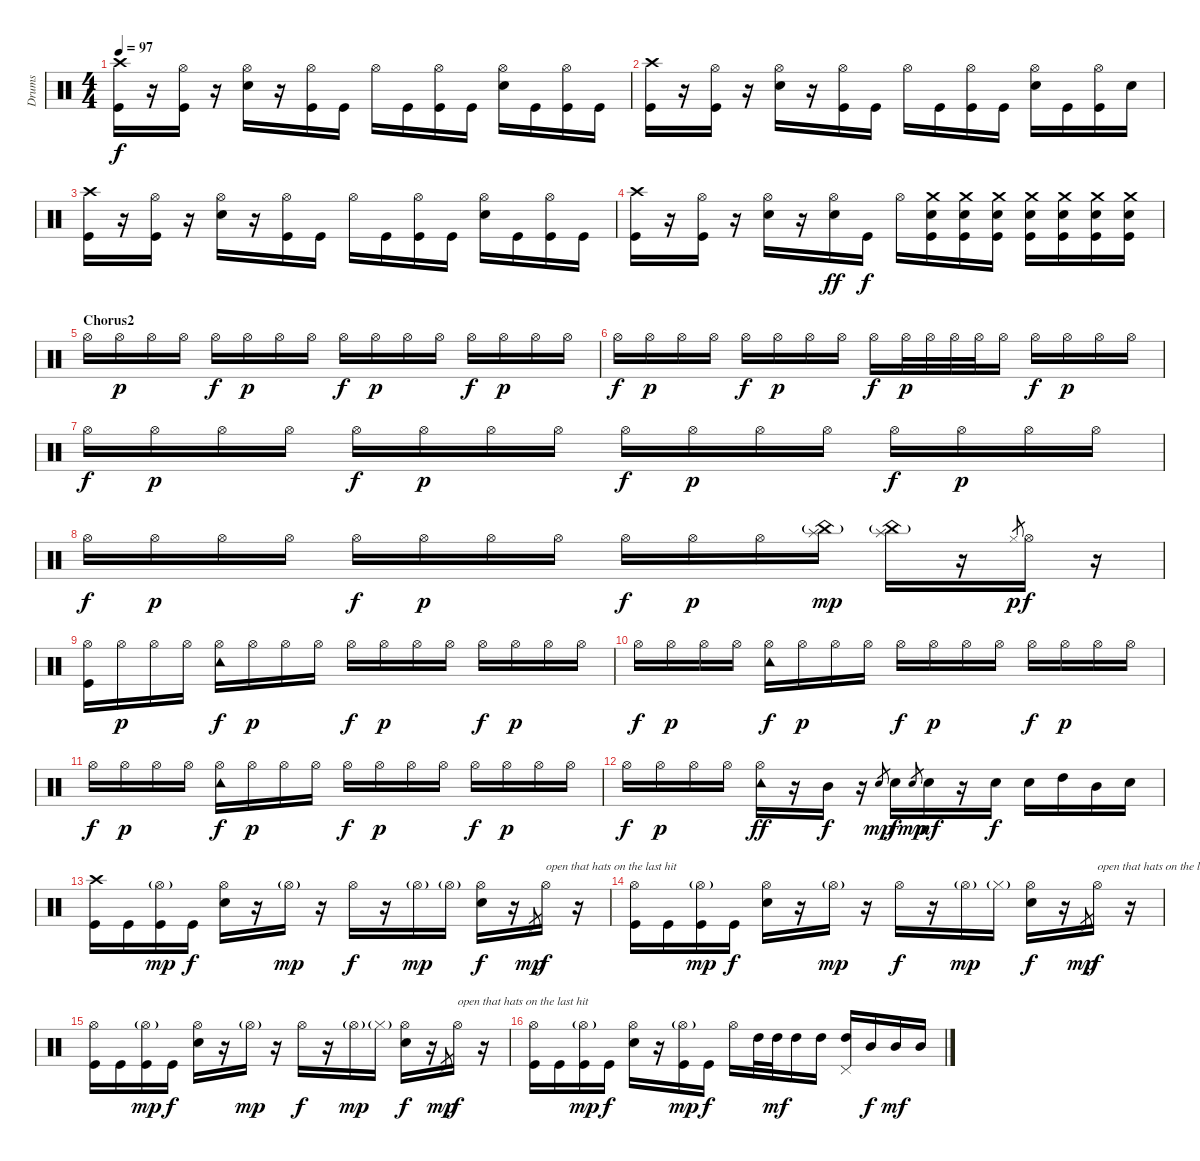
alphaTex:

\track ("Drums" "Drums") {instrument percussion}
\staff {score}
\articulation defaults
\ts (4 4)
\tempo 97
\clef neutral
\ks c
("Crash high (hit)" "Kick (hit)").16{dy f} r.16 ("Hi-Hat (open)" "Kick (hit)").16 r.16 ("Hi-Hat (open)" "Electric Snare (hit)").16 r.16 ("Hi-Hat (open)" "Kick (hit)").16 "Kick (hit)".16 "Hi-Hat (open)".16 "Kick (hit)".16 ("Hi-Hat (open)" "Kick (hit)").16 "Kick (hit)".16 ("Hi-Hat (open)" "Electric Snare (hit)").16 "Kick (hit)".16 ("Hi-Hat (open)" "Kick (hit)").16 "Kick (hit)".16 |
("Crash high (hit)" "Kick (hit)").16 r.16 ("Hi-Hat (open)" "Kick (hit)").16 r.16 ("Hi-Hat (open)" "Electric Snare (hit)").16 r.16 ("Hi-Hat (open)" "Kick (hit)").16 "Kick (hit)".16 "Hi-Hat (open)".16 "Kick (hit)".16 ("Hi-Hat (open)" "Kick (hit)").16 "Kick (hit)".16 ("Hi-Hat (open)" "Electric Snare (hit)").16 "Kick (hit)".16 ("Hi-Hat (open)" "Kick (hit)").16 "Electric Snare (hit)".16 |
("Crash high (hit)" "Kick (hit)").16 r.16 ("Hi-Hat (open)" "Kick (hit)").16 r.16 ("Hi-Hat (open)" "Electric Snare (hit)").16 r.16 ("Hi-Hat (open)" "Kick (hit)").16 "Kick (hit)".16 "Hi-Hat (open)".16 "Kick (hit)".16 ("Hi-Hat (open)" "Kick (hit)").16 "Kick (hit)".16 ("Hi-Hat (open)" "Electric Snare (hit)").16 "Kick (hit)".16 ("Hi-Hat (open)" "Kick (hit)").16 "Kick (hit)".16 |
("Crash high (hit)" "Kick (hit)").16 r.16 ("Hi-Hat (open)" "Kick (hit)").16 r.16 ("Hi-Hat (open)" "Electric Snare (hit)").16 r.16 ("Hi-Hat (open)" "Electric Snare (hit)").16{dy ff} "Kick (hit)".16{dy f} "Hi-Hat (open)".16 ("Crash medium (hit)" "Electric Snare (hit)" "Kick (hit)").16 ("Crash medium (hit)" "Electric Snare (hit)" "Kick (hit)").16 ("Crash medium (hit)" "Electric Snare (hit)" "Kick (hit)").16 ("Crash medium (hit)" "Electric Snare (hit)" "Kick (hit)").16 ("Crash medium (hit)" "Electric Snare (hit)" "Kick (hit)").16 ("Crash medium (hit)" "Electric Snare (hit)" "Kick (hit)").16 ("Crash medium (hit)" "Electric Snare (hit)" "Kick (hit)").16 |
\section ("" "Chorus2")
"Hi-Hat (open)".16 "Hi-Hat (open)".16{dy p} "Hi-Hat (open)".16 "Hi-Hat (open)".16 "Hi-Hat (open)".16{dy f} "Hi-Hat (open)".16{dy p} "Hi-Hat (open)".16 "Hi-Hat (open)".16 "Hi-Hat (open)".16{dy f} "Hi-Hat (open)".16{dy p} "Hi-Hat (open)".16 "Hi-Hat (open)".16 "Hi-Hat (open)".16{dy f} "Hi-Hat (open)".16{dy p} "Hi-Hat (open)".16 "Hi-Hat (open)".16 |
"Hi-Hat (open)".16{dy f} "Hi-Hat (open)".16{dy p} "Hi-Hat (open)".16 "Hi-Hat (open)".16 "Hi-Hat (open)".16{dy f} "Hi-Hat (open)".16{dy p} "Hi-Hat (open)".16 "Hi-Hat (open)".16 "Hi-Hat (open)".16{dy f} "Hi-Hat (open)".32{dy p} "Hi-Hat (open)".32 "Hi-Hat (open)".32 "Hi-Hat (open)".32 "Hi-Hat (open)".16 "Hi-Hat (open)".16{dy f} "Hi-Hat (open)".16{dy p} "Hi-Hat (open)".16 "Hi-Hat (open)".16 |
"Hi-Hat (open)".16{dy f} "Hi-Hat (open)".16{dy p} "Hi-Hat (open)".16 "Hi-Hat (open)".16 "Hi-Hat (open)".16{dy f} "Hi-Hat (open)".16{dy p} "Hi-Hat (open)".16 "Hi-Hat (open)".16 "Hi-Hat (open)".16{dy f} "Hi-Hat (open)".16{dy p} "Hi-Hat (open)".16 "Hi-Hat (open)".16 "Hi-Hat (open)".16{dy f} "Hi-Hat (open)".16{dy p} "Hi-Hat (open)".16 "Hi-Hat (open)".16 |
"Hi-Hat (open)".16{dy f} "Hi-Hat (open)".16{dy p} "Hi-Hat (open)".16 "Hi-Hat (open)".16 "Hi-Hat (open)".16{dy f} "Hi-Hat (open)".16{dy p} "Hi-Hat (open)".16 "Hi-Hat (open)".16 "Hi-Hat (open)".16{dy f} "Hi-Hat (open)".16{dy p} "Hi-Hat (open)".16 ("China (hit)"{g} "Splash (hit)").16{dy mp} ("China (hit)"{g} "Splash (hit)").16 r.16 "Hi-Hat (closed)".8{gr dy p} "Hi-Hat (open)".16{dy f} r.16 |
("Hi-Hat (open)" "Kick (hit)").16 "Hi-Hat (open)".16{dy p} "Hi-Hat (open)".16 "Hi-Hat (open)".16 ("Tambourine (hit)" "Hi-Hat (open)").16{dy f} "Hi-Hat (open)".16{dy p} "Hi-Hat (open)".16 "Hi-Hat (open)".16 "Hi-Hat (open)".16{dy f} "Hi-Hat (open)".16{dy p} "Hi-Hat (open)".16 "Hi-Hat (open)".16 "Hi-Hat (open)".16{dy f} "Hi-Hat (open)".16{dy p} "Hi-Hat (open)".16 "Hi-Hat (open)".16 |
"Hi-Hat (open)".16{dy f} "Hi-Hat (open)".16{dy p} "Hi-Hat (open)".16 "Hi-Hat (open)".16 ("Tambourine (hit)" "Hi-Hat (open)").16{dy f} "Hi-Hat (open)".16{dy p} "Hi-Hat (open)".16 "Hi-Hat (open)".16 "Hi-Hat (open)".16{dy f} "Hi-Hat (open)".16{dy p} "Hi-Hat (open)".16 "Hi-Hat (open)".16 "Hi-Hat (open)".16{dy f} "Hi-Hat (open)".16{dy p} "Hi-Hat (open)".16 "Hi-Hat (open)".16 |
"Hi-Hat (open)".16{dy f} "Hi-Hat (open)".16{dy p} "Hi-Hat (open)".16 "Hi-Hat (open)".16 ("Tambourine (hit)" "Hi-Hat (open)").16{dy f} "Hi-Hat (open)".16{dy p} "Hi-Hat (open)".16 "Hi-Hat (open)".16 "Hi-Hat (open)".16{dy f} "Hi-Hat (open)".16{dy p} "Hi-Hat (open)".16 "Hi-Hat (open)".16 "Hi-Hat (open)".16{dy f} "Hi-Hat (open)".16{dy p} "Hi-Hat (open)".16 "Hi-Hat (open)".16 |
"Hi-Hat (open)".16{dy f} "Hi-Hat (open)".16{dy p} "Hi-Hat (open)".16 "Hi-Hat (open)".16 ("Tambourine (hit)" "Hi-Hat (open)").16{dy ff} r.16 "Mid Tom (hit)".16{dy f} r.16 "Electric Snare (hit)".8{gr dy mp} "Electric Snare (hit)".16{dy f} "Electric Snare (hit)".8{gr dy mp} "Electric Snare (hit)".16{dy mf} r.16 "Electric Snare (hit)".16{dy f} "Electric Snare (hit)".16 "High Tom (hit)".16 "Mid Tom (hit)".16 "Electric Snare (hit)".16 |
("Crash high (hit)" "Kick (hit)").16 "Kick (hit)".16 ("Hi-Hat (open)"{g} "Kick (hit)").16{dy mp} "Kick (hit)".16{dy f} ("Hi-Hat (open)" "Electric Snare (hit)").16 r.16 "Hi-Hat (open)"{g}.16{dy mp} r.16 "Hi-Hat (open)".16{dy f} r.16 "Hi-Hat (open)"{g}.16{dy mp} "Hi-Hat (open)"{g}.16 ("Hi-Hat (open)" "Electric Snare (hit)").16{dy f} r.16 "Pedal Hi-Hat (hit)".8{gr dy mp} "Hi-Hat (open)".16{txt "open that hats on the last hit" dy f} r.16 |
("Hi-Hat (open)" "Kick (hit)").16 "Kick (hit)".16 ("Hi-Hat (open)"{g} "Kick (hit)").16{dy mp} "Kick (hit)".16{dy f} ("Hi-Hat (open)" "Electric Snare (hit)").16 r.16 "Hi-Hat (open)"{g}.16{dy mp} r.16 "Hi-Hat (open)".16{dy f} r.16 "Hi-Hat (open)"{g}.16{dy mp} "Hi-Hat (closed)"{g}.16 ("Hi-Hat (open)" "Electric Snare (hit)").16{dy f} r.16 "Pedal Hi-Hat (hit)".8{gr dy mp} "Hi-Hat (open)".16{txt "open that hats on the last hit" dy f} r.16 |
("Hi-Hat (open)" "Kick (hit)").16 "Kick (hit)".16 ("Hi-Hat (open)"{g} "Kick (hit)").16{dy mp} "Kick (hit)".16{dy f} ("Hi-Hat (open)" "Electric Snare (hit)").16 r.16 "Hi-Hat (open)"{g}.16{dy mp} r.16 "Hi-Hat (open)".16{dy f} r.16 "Hi-Hat (open)"{g}.16{dy mp} "Hi-Hat (closed)"{g}.16 ("Hi-Hat (open)" "Electric Snare (hit)").16{dy f} r.16 "Pedal Hi-Hat (hit)".8{gr dy mp} "Hi-Hat (open)".16{txt "open that hats on the last hit" dy f} r.16 |
("Hi-Hat (open)" "Kick (hit)").16 "Kick (hit)".16 ("Hi-Hat (open)"{g} "Kick (hit)").16{dy mp} "Kick (hit)".16{dy f} ("Hi-Hat (open)" "Electric Snare (hit)").16 r.16 ("Hi-Hat (open)"{g} "Kick (hit)").16{dy mp} "Kick (hit)".16{dy f} "Hi-Hat (open)".16 "High Tom (hit)".32 "High Tom (hit)".32{dy mf} "High Tom (hit)".16 "High Tom (hit)".16 ("Pedal Hi-Hat (hit)" "High Tom (hit)").16 "Mid Tom (hit)".16{dy f} "Mid Tom (hit)".16{dy mf} "Mid Tom (hit)".16
